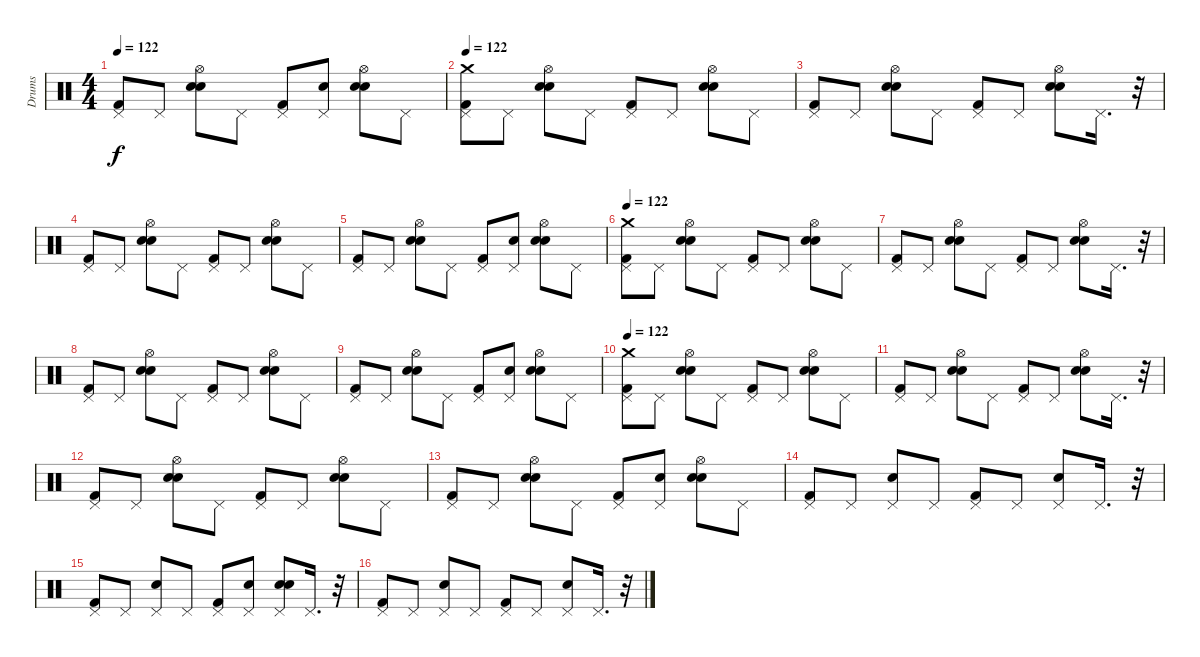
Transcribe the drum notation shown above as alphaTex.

\track ("Drums" "Drums") {instrument percussion}
\staff {score}
\articulation defaults
\ts (4 4)
\tempo 122
\clef neutral
\ks c
("Pedal Hi-Hat (hit)" "Kick (hit) 2").8{dy f} "Pedal Hi-Hat (hit)".8 ("Hi-Hat (open)" "Snare (hit) 2" "Hand Clap (hit)").8 "Pedal Hi-Hat (hit)".8 ("Pedal Hi-Hat (hit)" "Kick (hit) 2").8 ("Pedal Hi-Hat (hit)" "Hand Clap (hit)").8 ("Hi-Hat (open)" "Snare (hit) 2" "Hand Clap (hit)").8 "Pedal Hi-Hat (hit)".8 |
\tempo 122
("Pedal Hi-Hat (hit)" "Kick (hit) 2" "Crash medium (hit)").8 "Pedal Hi-Hat (hit)".8 ("Hi-Hat (open)" "Hand Clap (hit)" "Snare (hit) 2").8 "Pedal Hi-Hat (hit)".8 ("Pedal Hi-Hat (hit)" "Kick (hit) 2").8 "Pedal Hi-Hat (hit)".8 ("Hi-Hat (open)" "Hand Clap (hit)" "Snare (hit) 2").8 "Pedal Hi-Hat (hit)".8 |
("Pedal Hi-Hat (hit)" "Kick (hit) 2").8 "Pedal Hi-Hat (hit)".8 ("Hand Clap (hit)" "Hi-Hat (open)" "Snare (hit) 2").8 "Pedal Hi-Hat (hit)".8 ("Pedal Hi-Hat (hit)" "Kick (hit) 2").8 "Pedal Hi-Hat (hit)".8 ("Hand Clap (hit)" "Hi-Hat (open)" "Snare (hit) 2").8 "Pedal Hi-Hat (hit)".16{d} r.32 |
("Kick (hit) 2" "Pedal Hi-Hat (hit)").8 "Pedal Hi-Hat (hit)".8 ("Hand Clap (hit)" "Snare (hit) 2" "Hi-Hat (open)").8 "Pedal Hi-Hat (hit)".8 ("Kick (hit) 2" "Pedal Hi-Hat (hit)").8 "Pedal Hi-Hat (hit)".8 ("Hand Clap (hit)" "Snare (hit) 2" "Hi-Hat (open)").8 "Pedal Hi-Hat (hit)".8 |
("Pedal Hi-Hat (hit)" "Kick (hit) 2").8 "Pedal Hi-Hat (hit)".8 ("Hi-Hat (open)" "Snare (hit) 2" "Hand Clap (hit)").8 "Pedal Hi-Hat (hit)".8 ("Pedal Hi-Hat (hit)" "Kick (hit) 2").8 ("Pedal Hi-Hat (hit)" "Hand Clap (hit)").8 ("Hi-Hat (open)" "Snare (hit) 2" "Hand Clap (hit)").8 "Pedal Hi-Hat (hit)".8 |
\tempo 122
("Pedal Hi-Hat (hit)" "Kick (hit) 2" "Crash medium (hit)").8 "Pedal Hi-Hat (hit)".8 ("Hi-Hat (open)" "Hand Clap (hit)" "Snare (hit) 2").8 "Pedal Hi-Hat (hit)".8 ("Pedal Hi-Hat (hit)" "Kick (hit) 2").8 "Pedal Hi-Hat (hit)".8 ("Hi-Hat (open)" "Hand Clap (hit)" "Snare (hit) 2").8 "Pedal Hi-Hat (hit)".8 |
("Pedal Hi-Hat (hit)" "Kick (hit) 2").8 "Pedal Hi-Hat (hit)".8 ("Hand Clap (hit)" "Hi-Hat (open)" "Snare (hit) 2").8 "Pedal Hi-Hat (hit)".8 ("Pedal Hi-Hat (hit)" "Kick (hit) 2").8 "Pedal Hi-Hat (hit)".8 ("Hand Clap (hit)" "Hi-Hat (open)" "Snare (hit) 2").8 "Pedal Hi-Hat (hit)".16{d} r.32 |
("Kick (hit) 2" "Pedal Hi-Hat (hit)").8 "Pedal Hi-Hat (hit)".8 ("Hand Clap (hit)" "Snare (hit) 2" "Hi-Hat (open)").8 "Pedal Hi-Hat (hit)".8 ("Kick (hit) 2" "Pedal Hi-Hat (hit)").8 "Pedal Hi-Hat (hit)".8 ("Hand Clap (hit)" "Snare (hit) 2" "Hi-Hat (open)").8 "Pedal Hi-Hat (hit)".8 |
("Pedal Hi-Hat (hit)" "Kick (hit) 2").8 "Pedal Hi-Hat (hit)".8 ("Hi-Hat (open)" "Snare (hit) 2" "Hand Clap (hit)").8 "Pedal Hi-Hat (hit)".8 ("Pedal Hi-Hat (hit)" "Kick (hit) 2").8 ("Pedal Hi-Hat (hit)" "Hand Clap (hit)").8 ("Hi-Hat (open)" "Snare (hit) 2" "Hand Clap (hit)").8 "Pedal Hi-Hat (hit)".8 |
\tempo 122
("Pedal Hi-Hat (hit)" "Kick (hit) 2" "Crash medium (hit)").8 "Pedal Hi-Hat (hit)".8 ("Hi-Hat (open)" "Hand Clap (hit)" "Snare (hit) 2").8 "Pedal Hi-Hat (hit)".8 ("Pedal Hi-Hat (hit)" "Kick (hit) 2").8 "Pedal Hi-Hat (hit)".8 ("Hi-Hat (open)" "Hand Clap (hit)" "Snare (hit) 2").8 "Pedal Hi-Hat (hit)".8 |
("Pedal Hi-Hat (hit)" "Kick (hit) 2").8 "Pedal Hi-Hat (hit)".8 ("Hand Clap (hit)" "Hi-Hat (open)" "Snare (hit) 2").8 "Pedal Hi-Hat (hit)".8 ("Pedal Hi-Hat (hit)" "Kick (hit) 2").8 "Pedal Hi-Hat (hit)".8 ("Hand Clap (hit)" "Hi-Hat (open)" "Snare (hit) 2").8 "Pedal Hi-Hat (hit)".16{d} r.32 |
("Kick (hit) 2" "Pedal Hi-Hat (hit)").8 "Pedal Hi-Hat (hit)".8 ("Hand Clap (hit)" "Snare (hit) 2" "Hi-Hat (open)").8 "Pedal Hi-Hat (hit)".8 ("Kick (hit) 2" "Pedal Hi-Hat (hit)").8 "Pedal Hi-Hat (hit)".8 ("Hand Clap (hit)" "Snare (hit) 2" "Hi-Hat (open)").8 "Pedal Hi-Hat (hit)".8 |
("Pedal Hi-Hat (hit)" "Kick (hit) 2").8 "Pedal Hi-Hat (hit)".8 ("Hi-Hat (open)" "Snare (hit) 2" "Hand Clap (hit)").8 "Pedal Hi-Hat (hit)".8 ("Pedal Hi-Hat (hit)" "Kick (hit) 2").8 ("Pedal Hi-Hat (hit)" "Hand Clap (hit)").8 ("Hi-Hat (open)" "Snare (hit) 2" "Hand Clap (hit)").8 "Pedal Hi-Hat (hit)".8 |
("Kick (hit) 2" "Pedal Hi-Hat (hit)").8 "Pedal Hi-Hat (hit)".8 ("Snare (hit) 2" "Pedal Hi-Hat (hit)").8 "Pedal Hi-Hat (hit)".8 ("Kick (hit) 2" "Pedal Hi-Hat (hit)").8 "Pedal Hi-Hat (hit)".8 ("Snare (hit) 2" "Pedal Hi-Hat (hit)").8 "Pedal Hi-Hat (hit)".16{d} r.32 |
("Kick (hit) 2" "Pedal Hi-Hat (hit)").8 "Pedal Hi-Hat (hit)".8 ("Snare (hit) 2" "Pedal Hi-Hat (hit)").8 "Pedal Hi-Hat (hit)".8 ("Kick (hit) 2" "Pedal Hi-Hat (hit)").8 ("Hand Clap (hit)" "Pedal Hi-Hat (hit)").8 ("Snare (hit) 2" "Hand Clap (hit)" "Pedal Hi-Hat (hit)").8 "Pedal Hi-Hat (hit)".16{d} r.32 |
("Kick (hit) 2" "Pedal Hi-Hat (hit)").8 "Pedal Hi-Hat (hit)".8 ("Snare (hit) 2" "Pedal Hi-Hat (hit)").8 "Pedal Hi-Hat (hit)".8 ("Kick (hit) 2" "Pedal Hi-Hat (hit)").8 "Pedal Hi-Hat (hit)".8 ("Snare (hit) 2" "Pedal Hi-Hat (hit)").8 "Pedal Hi-Hat (hit)".16{d} r.32
